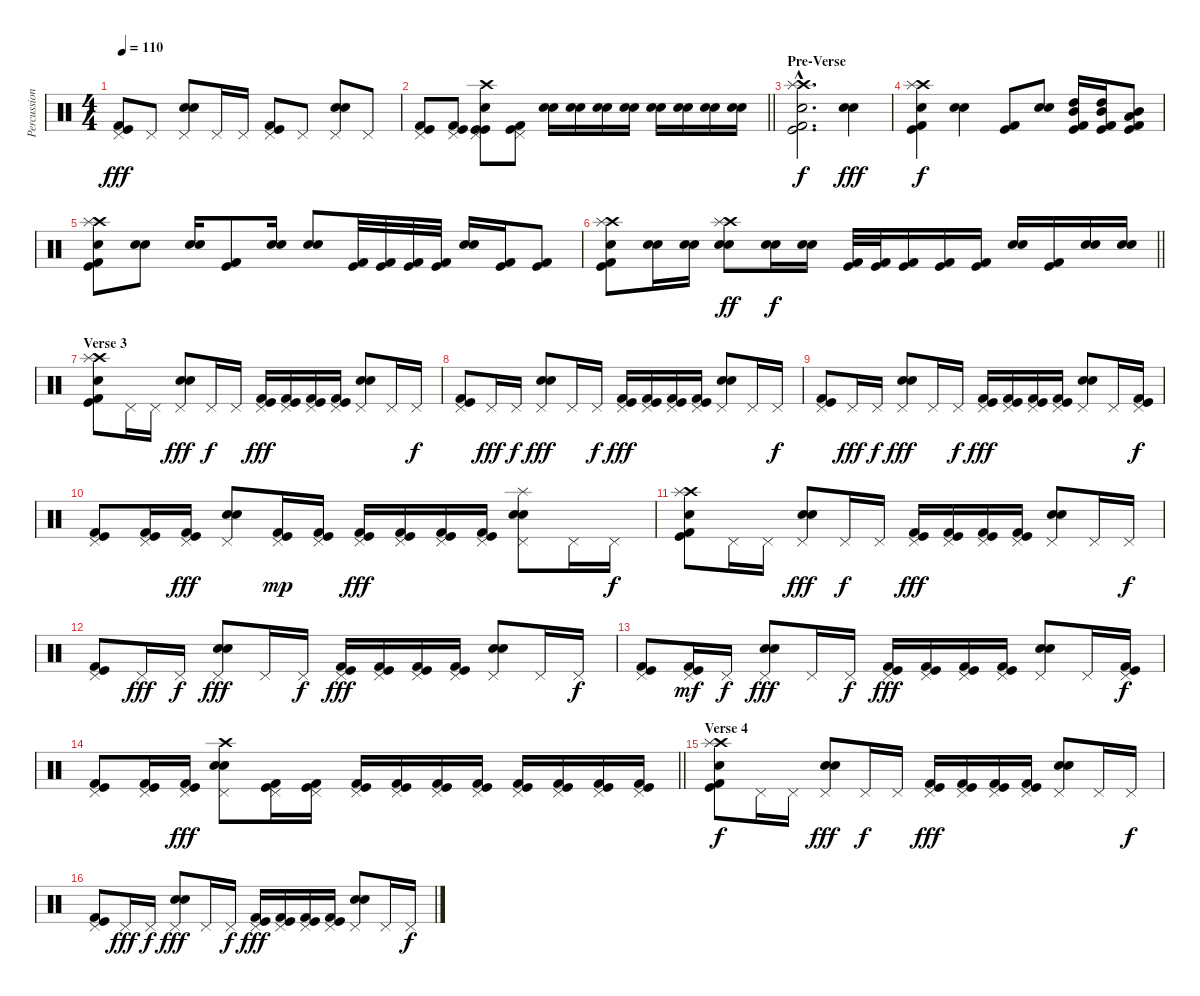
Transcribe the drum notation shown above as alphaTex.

\track ("Percussion" "Percussion") {instrument percussion}
\staff {score}
\articulation defaults
\ts (4 4)
\tempo 110
\clef neutral
\ks c
("Pedal Hi-Hat (hit)" "Kick (hit)" "Kick (hit) 2").8{dy fff} "Pedal Hi-Hat (hit)".8 ("Electric Snare (hit)" "Snare (hit) 2" "Pedal Hi-Hat (hit)").8 "Pedal Hi-Hat (hit)".16 "Pedal Hi-Hat (hit)".16 ("Pedal Hi-Hat (hit)" "Kick (hit)" "Kick (hit) 2").8 "Pedal Hi-Hat (hit)".8 ("Electric Snare (hit)" "Snare (hit) 2" "Pedal Hi-Hat (hit)").8 "Pedal Hi-Hat (hit)".8 |
\barLineRight lightlight
("Pedal Hi-Hat (hit)" "Kick (hit)" "Kick (hit) 2").8 ("Pedal Hi-Hat (hit)" "Kick (hit)" "Kick (hit) 2").8 ("Crash high (hit)" "Snare (hit) 2" "Pedal Hi-Hat (hit)" "Kick (hit)" "Kick (hit)").8 ("Pedal Hi-Hat (hit)" "Kick (hit)" "Kick (hit) 2").8 ("Electric Snare (hit)" "Snare (hit) 2").16 ("Electric Snare (hit)" "Snare (hit) 2").16 ("Electric Snare (hit)" "Snare (hit) 2").16 ("Electric Snare (hit)" "Snare (hit) 2").16 ("Electric Snare (hit)" "Snare (hit) 2").16 ("Electric Snare (hit)" "Snare (hit) 2").16 ("Electric Snare (hit)" "Snare (hit) 2").16 ("Electric Snare (hit)" "Snare (hit) 2").16 |
\section ("" "Pre-Verse")
("Crash high (hit)"{hac} "Splash (hit)"{hac} "Snare (hit) 2"{hac} "Kick (hit)"{hac} "Kick (hit) 2"{hac}).2{d dy f} ("Electric Snare (hit)" "Snare (hit) 2").4{dy fff} |
("Crash high (hit)" "Splash (hit)" "Snare (hit) 2" "Kick (hit)" "Kick (hit) 2").4{dy f} ("Electric Snare (hit)" "Snare (hit) 2").4 ("Kick (hit)" "Kick (hit) 2").8 ("Electric Snare (hit)" "Snare (hit) 2").8 ("High Tom (hit)" "Mid Tom (hit)" "Kick (hit)" "Kick (hit) 2").16 ("High Tom (hit)" "Mid Tom (hit)" "Kick (hit)" "Kick (hit) 2").16 ("Mid Tom (hit)" "Low Tom (hit)" "Kick (hit)" "Kick (hit) 2").8 |
("Crash high (hit)" "Splash (hit)" "Snare (hit) 2" "Kick (hit)" "Kick (hit) 2").8 ("Electric Snare (hit)" "Snare (hit) 2").8 ("Electric Snare (hit)" "Snare (hit) 2").16 ("Kick (hit)" "Kick (hit) 2").8 ("Electric Snare (hit)" "Snare (hit) 2").16 ("Electric Snare (hit)" "Snare (hit) 2").8 ("Kick (hit)" "Kick (hit) 2").32 ("Kick (hit)" "Kick (hit) 2").32 ("Kick (hit)" "Kick (hit) 2").32 ("Kick (hit)" "Kick (hit) 2").32 ("Electric Snare (hit)" "Snare (hit) 2").16 ("Kick (hit)" "Kick (hit) 2").16 ("Kick (hit)" "Kick (hit) 2").8 |
\barLineRight lightlight
("Crash high (hit)" "Splash (hit)" "Snare (hit) 2" "Kick (hit)" "Kick (hit) 2").8 ("Electric Snare (hit)" "Snare (hit) 2").16 ("Electric Snare (hit)" "Snare (hit) 2").16 ("Electric Snare (hit)" "Snare (hit) 2" "Crash high (hit)" "Splash (hit)").8{dy ff} ("Electric Snare (hit)" "Snare (hit) 2").16{dy f} ("Electric Snare (hit)" "Snare (hit) 2").16 ("Kick (hit)" "Kick (hit) 2").32 ("Kick (hit)" "Kick (hit) 2").32 ("Kick (hit)" "Kick (hit) 2").16 ("Kick (hit)" "Kick (hit) 2").16 ("Kick (hit)" "Kick (hit) 2").16 ("Electric Snare (hit)" "Snare (hit) 2").16 ("Kick (hit)" "Kick (hit) 2").16 ("Electric Snare (hit)" "Snare (hit) 2").16 ("Electric Snare (hit)" "Snare (hit) 2").16 |
\section ("" "Verse 3")
("Crash high (hit)" "Splash (hit)" "Snare (hit) 2" "Kick (hit)" "Kick (hit) 2").8 "Pedal Hi-Hat (hit)".16 "Pedal Hi-Hat (hit)".16 ("Electric Snare (hit)" "Snare (hit) 2" "Pedal Hi-Hat (hit)").8{dy fff} "Pedal Hi-Hat (hit)".16{dy f} "Pedal Hi-Hat (hit)".16 ("Pedal Hi-Hat (hit)" "Kick (hit)" "Kick (hit) 2").16{dy fff} ("Pedal Hi-Hat (hit)" "Kick (hit)" "Kick (hit) 2").16 ("Pedal Hi-Hat (hit)" "Kick (hit)" "Kick (hit) 2").16 ("Pedal Hi-Hat (hit)" "Kick (hit)" "Kick (hit) 2").16 ("Electric Snare (hit)" "Snare (hit) 2" "Pedal Hi-Hat (hit)").8 "Pedal Hi-Hat (hit)".16 "Pedal Hi-Hat (hit)".16{dy f} |
("Pedal Hi-Hat (hit)" "Kick (hit)" "Kick (hit) 2").8 "Pedal Hi-Hat (hit)".16{dy fff} "Pedal Hi-Hat (hit)".16{dy f} ("Electric Snare (hit)" "Snare (hit) 2" "Pedal Hi-Hat (hit)").8{dy fff} "Pedal Hi-Hat (hit)".16 "Pedal Hi-Hat (hit)".16{dy f} ("Pedal Hi-Hat (hit)" "Kick (hit)" "Kick (hit) 2").16{dy fff} ("Pedal Hi-Hat (hit)" "Kick (hit)" "Kick (hit) 2").16 ("Pedal Hi-Hat (hit)" "Kick (hit)" "Kick (hit) 2").16 ("Pedal Hi-Hat (hit)" "Kick (hit)" "Kick (hit) 2").16 ("Electric Snare (hit)" "Snare (hit) 2" "Pedal Hi-Hat (hit)").8 "Pedal Hi-Hat (hit)".16 "Pedal Hi-Hat (hit)".16{dy f} |
("Pedal Hi-Hat (hit)" "Kick (hit)" "Kick (hit) 2").8 "Pedal Hi-Hat (hit)".16{dy fff} "Pedal Hi-Hat (hit)".16{dy f} ("Electric Snare (hit)" "Snare (hit) 2" "Pedal Hi-Hat (hit)").8{dy fff} "Pedal Hi-Hat (hit)".16 "Pedal Hi-Hat (hit)".16{dy f} ("Pedal Hi-Hat (hit)" "Kick (hit)" "Kick (hit) 2").16{dy fff} ("Pedal Hi-Hat (hit)" "Kick (hit)" "Kick (hit) 2").16 ("Pedal Hi-Hat (hit)" "Kick (hit)" "Kick (hit) 2").16 ("Pedal Hi-Hat (hit)" "Kick (hit)" "Kick (hit) 2").16 ("Electric Snare (hit)" "Snare (hit) 2" "Pedal Hi-Hat (hit)").8 "Pedal Hi-Hat (hit)".16 ("Pedal Hi-Hat (hit)" "Kick (hit)" "Kick (hit) 2").16{dy f} |
("Pedal Hi-Hat (hit)" "Kick (hit)" "Kick (hit) 2").8 ("Pedal Hi-Hat (hit)" "Kick (hit)" "Kick (hit) 2").16 ("Pedal Hi-Hat (hit)" "Kick (hit)" "Kick (hit) 2").16{dy fff} ("Electric Snare (hit)" "Snare (hit) 2" "Pedal Hi-Hat (hit)").8 ("Pedal Hi-Hat (hit)" "Kick (hit)" "Kick (hit) 2").16{dy mp} ("Pedal Hi-Hat (hit)" "Kick (hit)" "Kick (hit) 2").16 ("Pedal Hi-Hat (hit)" "Kick (hit)" "Kick (hit) 2").16{dy fff} ("Pedal Hi-Hat (hit)" "Kick (hit)" "Kick (hit) 2").16 ("Pedal Hi-Hat (hit)" "Kick (hit)" "Kick (hit) 2").16 ("Pedal Hi-Hat (hit)" "Kick (hit)" "Kick (hit) 2").16 ("Splash (hit)" "Electric Snare (hit)" "Snare (hit) 2" "Pedal Hi-Hat (hit)").8 "Pedal Hi-Hat (hit)".16 "Pedal Hi-Hat (hit)".16{dy f} |
("Crash high (hit)" "Splash (hit)" "Snare (hit) 2" "Kick (hit)" "Kick (hit) 2").8 "Pedal Hi-Hat (hit)".16 "Pedal Hi-Hat (hit)".16 ("Electric Snare (hit)" "Snare (hit) 2" "Pedal Hi-Hat (hit)").8{dy fff} "Pedal Hi-Hat (hit)".16{dy f} "Pedal Hi-Hat (hit)".16 ("Pedal Hi-Hat (hit)" "Kick (hit)" "Kick (hit) 2").16{dy fff} ("Pedal Hi-Hat (hit)" "Kick (hit)" "Kick (hit) 2").16 ("Pedal Hi-Hat (hit)" "Kick (hit)" "Kick (hit) 2").16 ("Pedal Hi-Hat (hit)" "Kick (hit)" "Kick (hit) 2").16 ("Electric Snare (hit)" "Snare (hit) 2" "Pedal Hi-Hat (hit)").8 "Pedal Hi-Hat (hit)".16 "Pedal Hi-Hat (hit)".16{dy f} |
("Pedal Hi-Hat (hit)" "Kick (hit)" "Kick (hit) 2").8 "Pedal Hi-Hat (hit)".16{dy fff} "Pedal Hi-Hat (hit)".16{dy f} ("Electric Snare (hit)" "Snare (hit) 2" "Pedal Hi-Hat (hit)").8{dy fff} "Pedal Hi-Hat (hit)".16 "Pedal Hi-Hat (hit)".16{dy f} ("Pedal Hi-Hat (hit)" "Kick (hit)" "Kick (hit) 2").16{dy fff} ("Pedal Hi-Hat (hit)" "Kick (hit)" "Kick (hit) 2").16 ("Pedal Hi-Hat (hit)" "Kick (hit)" "Kick (hit) 2").16 ("Pedal Hi-Hat (hit)" "Kick (hit)" "Kick (hit) 2").16 ("Electric Snare (hit)" "Snare (hit) 2" "Pedal Hi-Hat (hit)").8 "Pedal Hi-Hat (hit)".16 "Pedal Hi-Hat (hit)".16{dy f} |
("Pedal Hi-Hat (hit)" "Kick (hit)" "Kick (hit) 2").8 ("Pedal Hi-Hat (hit)" "Kick (hit)" "Kick (hit) 2").16{dy mf} "Pedal Hi-Hat (hit)".16{dy f} ("Electric Snare (hit)" "Snare (hit) 2" "Pedal Hi-Hat (hit)").8{dy fff} "Pedal Hi-Hat (hit)".16 "Pedal Hi-Hat (hit)".16{dy f} ("Pedal Hi-Hat (hit)" "Kick (hit)" "Kick (hit) 2").16{dy fff} ("Pedal Hi-Hat (hit)" "Kick (hit)" "Kick (hit) 2").16 ("Pedal Hi-Hat (hit)" "Kick (hit)" "Kick (hit) 2").16 ("Pedal Hi-Hat (hit)" "Kick (hit)" "Kick (hit) 2").16 ("Electric Snare (hit)" "Snare (hit) 2" "Pedal Hi-Hat (hit)").8 "Pedal Hi-Hat (hit)".16 ("Pedal Hi-Hat (hit)" "Kick (hit)" "Kick (hit) 2").16{dy f} |
\barLineRight lightlight
("Pedal Hi-Hat (hit)" "Kick (hit)" "Kick (hit) 2").8 ("Pedal Hi-Hat (hit)" "Kick (hit)" "Kick (hit) 2").16 ("Pedal Hi-Hat (hit)" "Kick (hit)" "Kick (hit) 2").16{dy fff} ("Crash high (hit)" "Electric Snare (hit)" "Snare (hit) 2" "Pedal Hi-Hat (hit)").8 ("Pedal Hi-Hat (hit)" "Kick (hit)" "Kick (hit) 2").16 ("Pedal Hi-Hat (hit)" "Kick (hit)" "Kick (hit) 2").16 ("Pedal Hi-Hat (hit)" "Kick (hit)" "Kick (hit) 2").16 ("Pedal Hi-Hat (hit)" "Kick (hit)" "Kick (hit) 2").16 ("Pedal Hi-Hat (hit)" "Kick (hit)" "Kick (hit) 2").16 ("Pedal Hi-Hat (hit)" "Kick (hit)" "Kick (hit) 2").16 ("Pedal Hi-Hat (hit)" "Kick (hit)" "Kick (hit) 2").16 ("Pedal Hi-Hat (hit)" "Kick (hit)" "Kick (hit) 2").16 ("Pedal Hi-Hat (hit)" "Kick (hit)" "Kick (hit) 2").16 ("Pedal Hi-Hat (hit)" "Kick (hit)" "Kick (hit) 2").16 |
\section ("" "Verse 4")
("Crash high (hit)" "Splash (hit)" "Snare (hit) 2" "Kick (hit)" "Kick (hit) 2").8{dy f} "Pedal Hi-Hat (hit)".16 "Pedal Hi-Hat (hit)".16 ("Electric Snare (hit)" "Snare (hit) 2" "Pedal Hi-Hat (hit)").8{dy fff} "Pedal Hi-Hat (hit)".16{dy f} "Pedal Hi-Hat (hit)".16 ("Pedal Hi-Hat (hit)" "Kick (hit)" "Kick (hit) 2").16{dy fff} ("Pedal Hi-Hat (hit)" "Kick (hit)" "Kick (hit) 2").16 ("Pedal Hi-Hat (hit)" "Kick (hit)" "Kick (hit) 2").16 ("Pedal Hi-Hat (hit)" "Kick (hit)" "Kick (hit) 2").16 ("Electric Snare (hit)" "Snare (hit) 2" "Pedal Hi-Hat (hit)").8 "Pedal Hi-Hat (hit)".16 "Pedal Hi-Hat (hit)".16{dy f} |
("Pedal Hi-Hat (hit)" "Kick (hit)" "Kick (hit) 2").8 "Pedal Hi-Hat (hit)".16{dy fff} "Pedal Hi-Hat (hit)".16{dy f} ("Electric Snare (hit)" "Snare (hit) 2" "Pedal Hi-Hat (hit)").8{dy fff} "Pedal Hi-Hat (hit)".16 "Pedal Hi-Hat (hit)".16{dy f} ("Pedal Hi-Hat (hit)" "Kick (hit)" "Kick (hit) 2").16{dy fff} ("Pedal Hi-Hat (hit)" "Kick (hit)" "Kick (hit) 2").16 ("Pedal Hi-Hat (hit)" "Kick (hit)" "Kick (hit) 2").16 ("Pedal Hi-Hat (hit)" "Kick (hit)" "Kick (hit) 2").16 ("Electric Snare (hit)" "Snare (hit) 2" "Pedal Hi-Hat (hit)").8 "Pedal Hi-Hat (hit)".16 "Pedal Hi-Hat (hit)".16{dy f}
